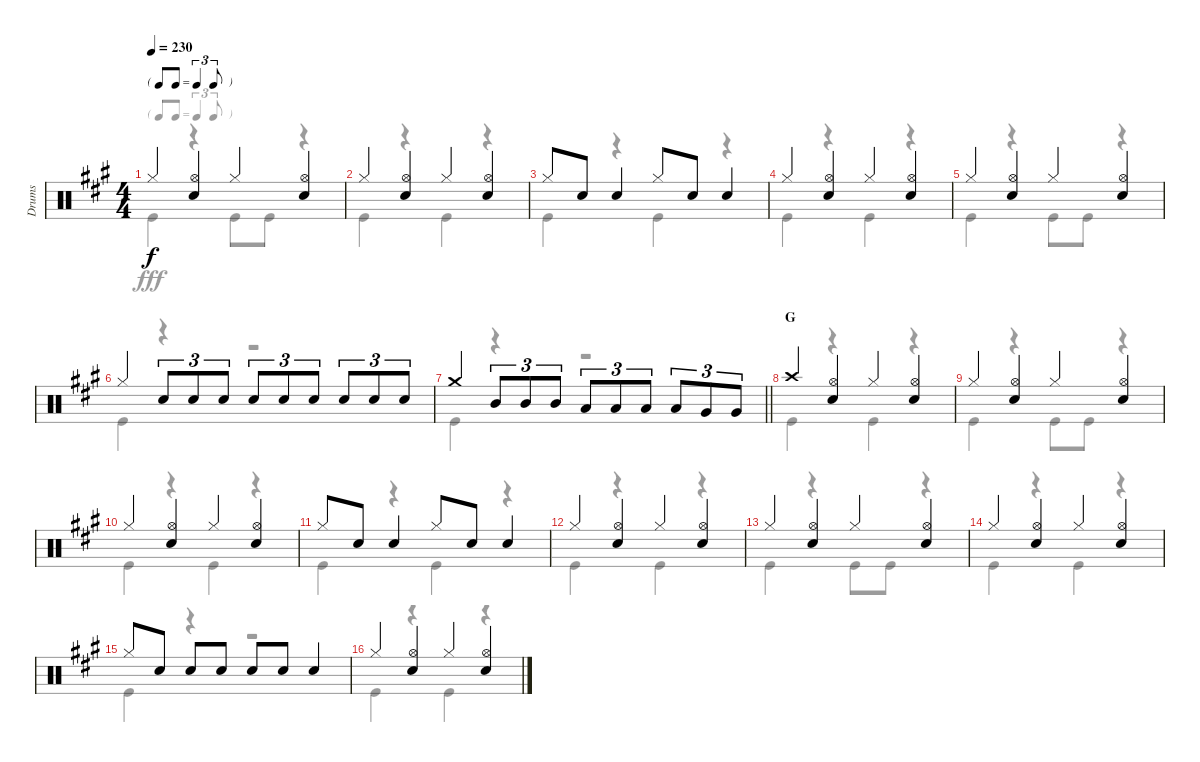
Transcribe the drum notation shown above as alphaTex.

\track ("Drums" "Drums") {instrument percussion}
\staff {score}
\articulation defaults
\voice
\ts (4 4)
\tf triplet8th
\tempo 230
\clef neutral
\ks a "Hi-Hat (closed)".4{dy f}
("Hi-Hat (open)" "Snare (hit) 2").4 "Hi-Hat (closed)".4 ("Hi-Hat (open)" "Snare (hit) 2").4 |
"Hi-Hat (closed)".4 ("Hi-Hat (open)" "Snare (hit) 2").4 "Hi-Hat (closed)".4 ("Hi-Hat (open)" "Snare (hit) 2").4 |
"Hi-Hat (closed)".8 "Snare (hit) 2".8 "Snare (hit) 2".4 "Hi-Hat (closed)".8 "Snare (hit) 2".8 "Snare (hit) 2".4 |
"Hi-Hat (closed)".4 ("Hi-Hat (open)" "Snare (hit) 2").4 "Hi-Hat (closed)".4 ("Hi-Hat (open)" "Snare (hit) 2").4 |
"Hi-Hat (closed)".4 ("Hi-Hat (open)" "Snare (hit) 2").4 "Hi-Hat (closed)".4 ("Hi-Hat (open)" "Snare (hit) 2").4 |
"Hi-Hat (closed)".4 "Snare (hit) 2".8{tu (3 2)} "Snare (hit) 2".8{tu (3 2)} "Snare (hit) 2".8{tu (3 2)} "Snare (hit) 2".8{tu (3 2)} "Snare (hit) 2".8{tu (3 2)} "Snare (hit) 2".8{tu (3 2)} "Snare (hit) 2".8{tu (3 2)} "Snare (hit) 2".8{tu (3 2)} "Snare (hit) 2".8{tu (3 2)} |
\barLineRight lightlight "Crash medium (hit)".4 "Mid Tom (hit)".8{tu (3 2)} "Mid Tom (hit)".8{tu (3 2)} "Mid Tom (hit)".8{tu (3 2)} "Low Tom (hit)".8{tu (3 2)} "Low Tom (hit)".8{tu (3 2)} "Low Tom (hit)".8{tu (3 2)} "Low Tom (hit)".8{tu (3 2)} "Very Low Tom (hit)".8{tu (3 2)} "Very Low Tom (hit)".8{tu (3 2)}
|
\section ("" "G")
"Crash high (hit)".4 ("Hi-Hat (open)" "Snare (hit) 2").4 "Hi-Hat (closed)".4 ("Hi-Hat (open)" "Snare (hit) 2").4 |
"Hi-Hat (closed)".4 ("Hi-Hat (open)" "Snare (hit) 2").4 "Hi-Hat (closed)".4 ("Hi-Hat (open)" "Snare (hit) 2").4 |
"Hi-Hat (closed)".4 ("Hi-Hat (open)" "Snare (hit) 2").4 "Hi-Hat (closed)".4 ("Hi-Hat (open)" "Snare (hit) 2").4 |
"Hi-Hat (closed)".8 "Snare (hit) 2".8 "Snare (hit) 2".4 "Hi-Hat (closed)".8 "Snare (hit) 2".8 "Snare (hit) 2".4 |
"Hi-Hat (closed)".4 ("Hi-Hat (open)" "Snare (hit) 2").4 "Hi-Hat (closed)".4 ("Hi-Hat (open)" "Snare (hit) 2").4 |
"Hi-Hat (closed)".4 ("Hi-Hat (open)" "Snare (hit) 2").4 "Hi-Hat (closed)".4 ("Hi-Hat (open)" "Snare (hit) 2").4 |
"Hi-Hat (closed)".4 ("Hi-Hat (open)" "Snare (hit) 2").4 "Hi-Hat (closed)".4 ("Hi-Hat (open)" "Snare (hit) 2").4 |
"Hi-Hat (closed)".8 "Snare (hit) 2".8 "Snare (hit) 2".8 "Snare (hit) 2".8 "Snare (hit) 2".8 "Snare (hit) 2".8 "Snare (hit) 2".4 |
"Hi-Hat (closed)".4 ("Hi-Hat (open)" "Snare (hit) 2").4 "Hi-Hat (closed)".4 ("Hi-Hat (open)" "Snare (hit) 2").4
\voice
\clef neutral
\ottava regular
\simile none
\ks a "Kick (hit)".4{dy fff}
r.4 "Kick (hit)".8 "Kick (hit)".8 r.4 |
"Kick (hit)".4 r.4 "Kick (hit)".4 r.4 |
"Kick (hit)".4 r.4 "Kick (hit)".4 r.4 |
"Kick (hit)".4 r.4 "Kick (hit)".4 r.4 |
"Kick (hit)".4 r.4 "Kick (hit)".8 "Kick (hit)".8 r.4 |
"Kick (hit)".4 r.4 r.2 |
\barLineRight lightlight "Kick (hit)".4
r.4 r.2 |
"Kick (hit)".4 r.4 "Kick (hit)".4 r.4 |
"Kick (hit)".4 r.4 "Kick (hit)".8 "Kick (hit)".8 r.4 |
"Kick (hit)".4 r.4 "Kick (hit)".4 r.4 |
"Kick (hit)".4 r.4 "Kick (hit)".4 r.4 |
"Kick (hit)".4 r.4 "Kick (hit)".4 r.4 |
"Kick (hit)".4 r.4 "Kick (hit)".8 "Kick (hit)".8 r.4 |
"Kick (hit)".4 r.4 "Kick (hit)".4 r.4 |
"Kick (hit)".4 r.4 r.2 |
"Kick (hit)".4 r.4 "Kick (hit)".4 r.4
